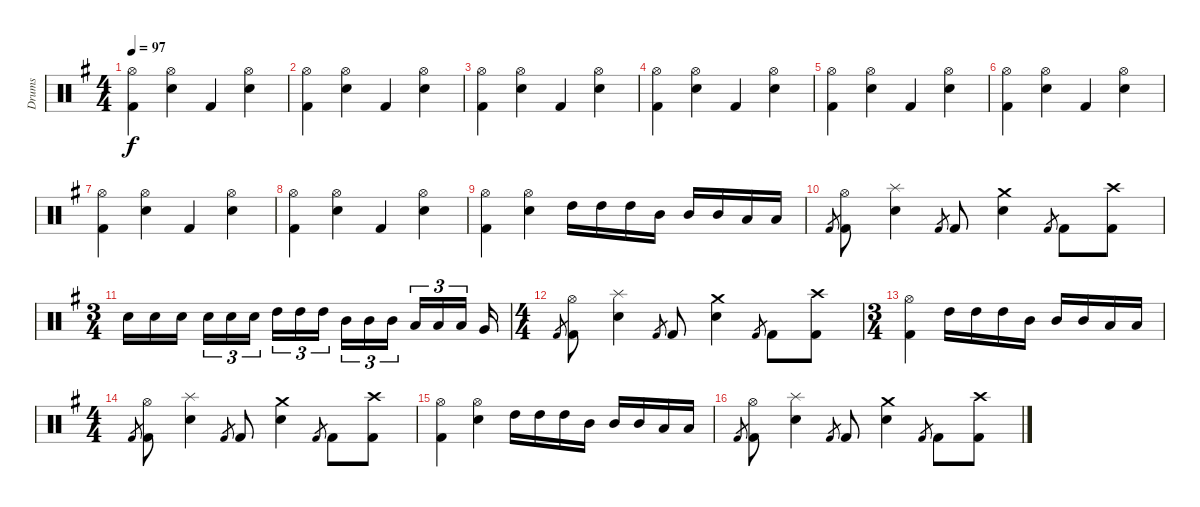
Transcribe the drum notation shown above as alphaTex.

\track ("Drums" "Drums") {instrument percussion}
\staff {score}
\articulation defaults
\ts (4 4)
\tempo 97
\clef neutral
\ks g
("Hi-Hat (open)" "Kick (hit) 2").4{dy f} ("Hi-Hat (open)" "Snare (hit) 2").4 "Kick (hit) 2".4 ("Hi-Hat (open)" "Snare (hit) 2").4 |
("Hi-Hat (open)" "Kick (hit) 2").4 ("Hi-Hat (open)" "Snare (hit) 2").4 "Kick (hit) 2".4 ("Hi-Hat (open)" "Snare (hit) 2").4 |
("Hi-Hat (open)" "Kick (hit) 2").4 ("Hi-Hat (open)" "Snare (hit) 2").4 "Kick (hit) 2".4 ("Hi-Hat (open)" "Snare (hit) 2").4 |
("Hi-Hat (open)" "Kick (hit) 2").4 ("Hi-Hat (open)" "Snare (hit) 2").4 "Kick (hit) 2".4 ("Hi-Hat (open)" "Snare (hit) 2").4 |
("Hi-Hat (open)" "Kick (hit) 2").4 ("Hi-Hat (open)" "Snare (hit) 2").4 "Kick (hit) 2".4 ("Hi-Hat (open)" "Snare (hit) 2").4 |
("Hi-Hat (open)" "Kick (hit) 2").4 ("Hi-Hat (open)" "Snare (hit) 2").4 "Kick (hit) 2".4 ("Hi-Hat (open)" "Snare (hit) 2").4 |
("Hi-Hat (open)" "Kick (hit) 2").4 ("Hi-Hat (open)" "Snare (hit) 2").4 "Kick (hit) 2".4 ("Hi-Hat (open)" "Snare (hit) 2").4 |
("Hi-Hat (open)" "Kick (hit) 2").4 ("Hi-Hat (open)" "Snare (hit) 2").4 "Kick (hit) 2".4 ("Hi-Hat (open)" "Snare (hit) 2").4 |
("Hi-Hat (open)" "Kick (hit) 2").4 ("Hi-Hat (open)" "Snare (hit) 2").4 "High Tom (hit)".16 "High Tom (hit)".16 "High Tom (hit)".16 "Mid Tom (hit)".16 "Mid Tom (hit)".16 "Mid Tom (hit)".16 "Low Tom (hit)".16 "Low Tom (hit)".16 |
"Kick (hit) 2".8{gr} ("Hi-Hat (open)" "Kick (hit) 2").8 ("Splash (hit)" "Snare (hit) 2").4 "Kick (hit) 2".8{gr} "Kick (hit) 2".8 ("Crash medium (hit)" "Snare (hit) 2").4 "Kick (hit) 2".8{gr} "Kick (hit) 2".8 ("Crash high (hit)" "Kick (hit) 2").8 |
\ts (3 4)
"Snare (hit) 2".16 "Snare (hit) 2".16 "Snare (hit) 2".16 "Snare (hit) 2".16{tu (3 2)} "Snare (hit) 2".16{tu (3 2)} "Snare (hit) 2".16{tu (3 2)} "High Tom (hit)".16{tu (3 2)} "High Tom (hit)".16{tu (3 2)} "High Tom (hit)".16{tu (3 2)} "Mid Tom (hit)".16{tu (3 2)} "Mid Tom (hit)".16{tu (3 2)} "Mid Tom (hit)".16{tu (3 2)} "Low Tom (hit)".16{tu (3 2)} "Low Tom (hit)".16{tu (3 2)} "Low Tom (hit)".16{tu (3 2)} "Very Low Tom (hit)".16 |
\ts (4 4)
"Kick (hit) 2".8{gr} ("Hi-Hat (open)" "Kick (hit) 2").8 ("Splash (hit)" "Snare (hit) 2").4 "Kick (hit) 2".8{gr} "Kick (hit) 2".8 ("Crash medium (hit)" "Snare (hit) 2").4 "Kick (hit) 2".8{gr} "Kick (hit) 2".8 ("Crash high (hit)" "Kick (hit) 2").8 |
\ts (3 4)
("Hi-Hat (open)" "Kick (hit) 2").4 "High Tom (hit)".16 "High Tom (hit)".16 "High Tom (hit)".16 "Mid Tom (hit)".16 "Mid Tom (hit)".16 "Mid Tom (hit)".16 "Low Tom (hit)".16 "Low Tom (hit)".16 |
\ts (4 4)
"Kick (hit) 2".8{gr} ("Hi-Hat (open)" "Kick (hit) 2").8 ("Splash (hit)" "Snare (hit) 2").4 "Kick (hit) 2".8{gr} "Kick (hit) 2".8 ("Crash medium (hit)" "Snare (hit) 2").4 "Kick (hit) 2".8{gr} "Kick (hit) 2".8 ("Crash high (hit)" "Kick (hit) 2").8 |
("Hi-Hat (open)" "Kick (hit) 2").4 ("Hi-Hat (open)" "Snare (hit) 2").4 "High Tom (hit)".16 "High Tom (hit)".16 "High Tom (hit)".16 "Mid Tom (hit)".16 "Mid Tom (hit)".16 "Mid Tom (hit)".16 "Low Tom (hit)".16 "Low Tom (hit)".16 |
"Kick (hit) 2".8{gr} ("Hi-Hat (open)" "Kick (hit) 2").8 ("Splash (hit)" "Snare (hit) 2").4 "Kick (hit) 2".8{gr} "Kick (hit) 2".8 ("Crash medium (hit)" "Snare (hit) 2").4 "Kick (hit) 2".8{gr} "Kick (hit) 2".8 ("Crash high (hit)" "Kick (hit) 2").8
